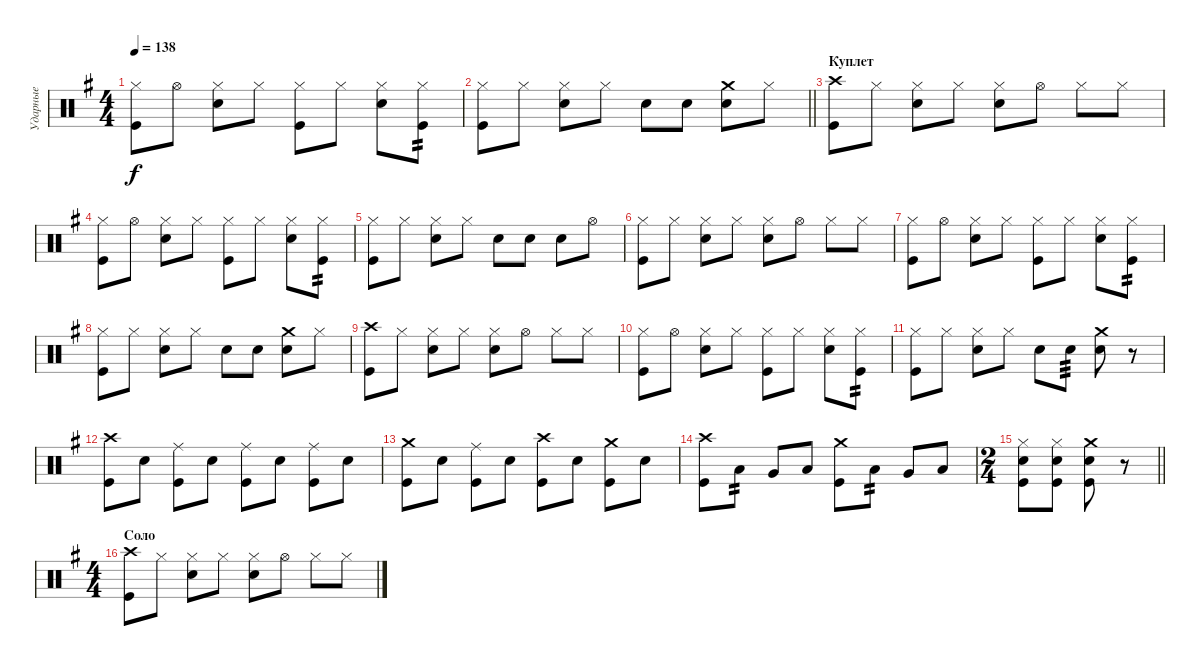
\track ("Ударные" "Ударные") {instrument percussion}
\staff {score}
\articulation defaults
\ts (4 4)
\tempo 138
\clef neutral
\ks eminor
("Hi-Hat (closed)" "Kick (hit)").8{dy f} "Hi-Hat (open)".8 ("Hi-Hat (closed)" "Electric Snare (hit)").8 "Hi-Hat (closed)".8 ("Hi-Hat (closed)" "Kick (hit)").8 "Hi-Hat (closed)".8 ("Hi-Hat (closed)" "Electric Snare (hit)").8 ("Hi-Hat (closed)" "Kick (hit)").8{tp 2} |
\barLineRight lightlight
("Hi-Hat (closed)" "Kick (hit)").8 "Hi-Hat (closed)".8 ("Hi-Hat (closed)" "Electric Snare (hit)").8 "Hi-Hat (closed)".8 "Electric Snare (hit)".8 "Electric Snare (hit)".8 ("Crash medium (hit)" "Electric Snare (hit)").8 "Hi-Hat (closed)".8 |
\section ("" "Куплет")
("Crash high (hit)" "Kick (hit)").8 "Hi-Hat (closed)".8 ("Hi-Hat (closed)" "Electric Snare (hit)").8 "Hi-Hat (closed)".8 ("Hi-Hat (closed)" "Electric Snare (hit)").8 "Hi-Hat (open)".8 "Hi-Hat (closed)".8 "Hi-Hat (closed)".8 |
("Hi-Hat (closed)" "Kick (hit)").8 "Hi-Hat (open)".8 ("Hi-Hat (closed)" "Electric Snare (hit)").8 "Hi-Hat (closed)".8 ("Hi-Hat (closed)" "Kick (hit)").8 "Hi-Hat (closed)".8 ("Hi-Hat (closed)" "Electric Snare (hit)").8 ("Hi-Hat (closed)" "Kick (hit)").8{tp 2} |
("Hi-Hat (closed)" "Kick (hit)").8 "Hi-Hat (closed)".8 ("Hi-Hat (closed)" "Electric Snare (hit)").8 "Hi-Hat (closed)".8 "Electric Snare (hit)".8 "Electric Snare (hit)".8 "Electric Snare (hit)".8 "Hi-Hat (open)".8 |
("Hi-Hat (closed)" "Kick (hit)").8 "Hi-Hat (closed)".8 ("Hi-Hat (closed)" "Electric Snare (hit)").8 "Hi-Hat (closed)".8 ("Hi-Hat (closed)" "Electric Snare (hit)").8 "Hi-Hat (open)".8 "Hi-Hat (closed)".8 "Hi-Hat (closed)".8 |
("Hi-Hat (closed)" "Kick (hit)").8 "Hi-Hat (open)".8 ("Hi-Hat (closed)" "Electric Snare (hit)").8 "Hi-Hat (closed)".8 ("Hi-Hat (closed)" "Kick (hit)").8 "Hi-Hat (closed)".8 ("Hi-Hat (closed)" "Electric Snare (hit)").8 ("Hi-Hat (closed)" "Kick (hit)").8{tp 2} |
("Hi-Hat (closed)" "Kick (hit)").8 "Hi-Hat (closed)".8 ("Hi-Hat (closed)" "Electric Snare (hit)").8 "Hi-Hat (closed)".8 "Electric Snare (hit)".8 "Electric Snare (hit)".8 ("Crash medium (hit)" "Electric Snare (hit)").8 "Hi-Hat (closed)".8 |
("Crash high (hit)" "Kick (hit)").8 "Hi-Hat (closed)".8 ("Hi-Hat (closed)" "Electric Snare (hit)").8 "Hi-Hat (closed)".8 ("Hi-Hat (closed)" "Electric Snare (hit)").8 "Hi-Hat (open)".8 "Hi-Hat (closed)".8 "Hi-Hat (closed)".8 |
("Hi-Hat (closed)" "Kick (hit)").8 "Hi-Hat (open)".8 ("Hi-Hat (closed)" "Electric Snare (hit)").8 "Hi-Hat (closed)".8 ("Hi-Hat (closed)" "Kick (hit)").8 "Hi-Hat (closed)".8 ("Hi-Hat (closed)" "Electric Snare (hit)").8 ("Hi-Hat (closed)" "Kick (hit)").8{tp 2} |
("Hi-Hat (closed)" "Kick (hit)").8 "Hi-Hat (closed)".8 ("Hi-Hat (closed)" "Electric Snare (hit)").8 "Hi-Hat (closed)".8 "Electric Snare (hit)".8 "Electric Snare (hit)".8{tp 3} ("Crash medium (hit)" "Electric Snare (hit)").8 r.8 |
("Crash high (hit)" "Kick (hit)").8 "Electric Snare (hit)".8 ("Ride (middle)" "Kick (hit)").8 "Electric Snare (hit)".8 ("Ride (middle)" "Kick (hit)").8 "Electric Snare (hit)".8 ("Ride (middle)" "Kick (hit)").8 "Electric Snare (hit)".8 |
("Crash medium (hit)" "Kick (hit)").8 "Electric Snare (hit)".8 ("Ride (middle)" "Kick (hit)").8 "Electric Snare (hit)".8 ("Crash high (hit)" "Kick (hit)").8 "Electric Snare (hit)".8 ("Crash medium (hit)" "Kick (hit)").8 "Electric Snare (hit)".8 |
("Crash high (hit)" "Kick (hit)").8 "Low Tom (hit)".8{tp 2} "Very Low Tom (hit)".8 "Low Floor Tom (hit)".8 ("Crash medium (hit)" "Kick (hit)").8 "Low Tom (hit)".8{tp 2} "Very Low Tom (hit)".8 "Low Floor Tom (hit)".8 |
\ts (2 4)
\barLineRight lightlight
("Hi-Hat (closed)" "Electric Snare (hit)" "Kick (hit)").8 ("Hi-Hat (closed)" "Electric Snare (hit)" "Kick (hit)").8 ("Crash medium (hit)" "Electric Snare (hit)" "Kick (hit)").8 r.8 |
\ts (4 4)
\section ("" "Соло")
("Crash high (hit)" "Kick (hit)").8 "Hi-Hat (closed)".8 ("Hi-Hat (closed)" "Electric Snare (hit)").8 "Hi-Hat (closed)".8 ("Hi-Hat (closed)" "Electric Snare (hit)").8 "Hi-Hat (open)".8 "Hi-Hat (closed)".8 "Hi-Hat (closed)".8
